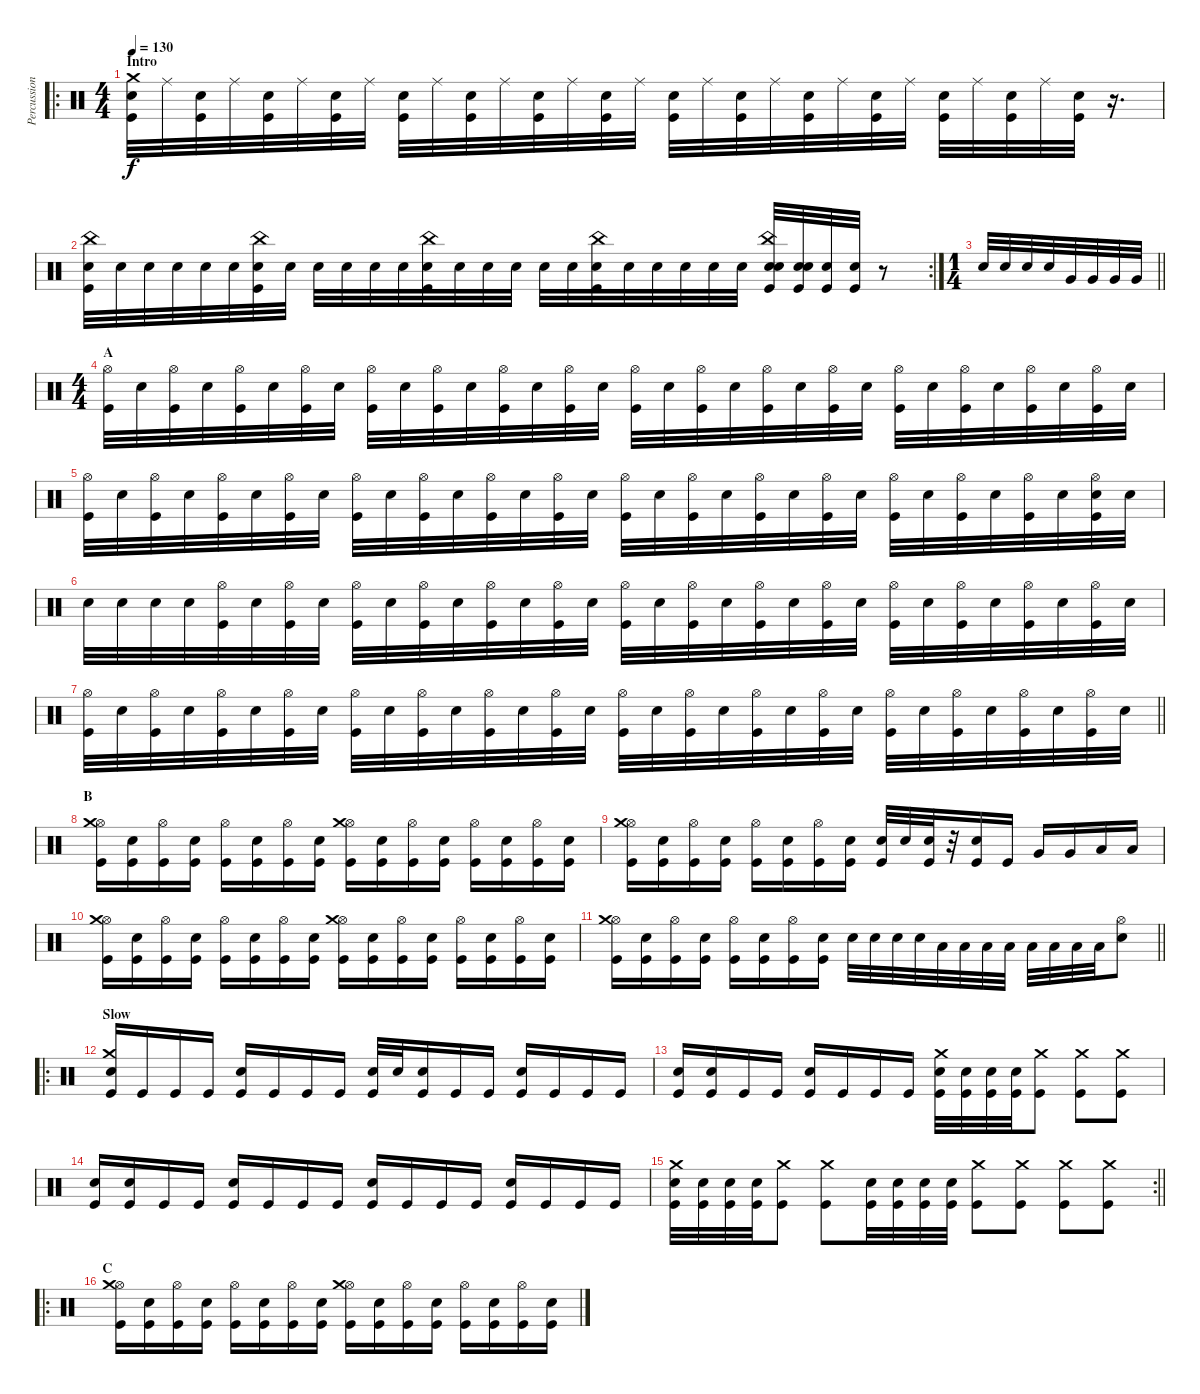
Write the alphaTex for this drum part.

\track ("Percussion" "Percussion") {instrument percussion}
\staff {score}
\articulation defaults
\ro
\ts (4 4)
\section ("" "Intro")
\tempo 130
\clef neutral
\ks c
("Electric Snare (hit)" "Crash medium (hit)" "Kick (hit)").32{dy f} "Ride (middle)".32 ("Electric Snare (hit)" "Kick (hit)").32 "Ride (middle)".32 ("Electric Snare (hit)" "Kick (hit)").32 "Ride (middle)".32 ("Electric Snare (hit)" "Kick (hit)").32 "Ride (middle)".32 ("Electric Snare (hit)" "Kick (hit)").32 "Ride (middle)".32 ("Electric Snare (hit)" "Kick (hit)").32 "Ride (middle)".32 ("Electric Snare (hit)" "Kick (hit)").32 "Ride (middle)".32 ("Electric Snare (hit)" "Kick (hit)").32 "Ride (middle)".32 ("Electric Snare (hit)" "Kick (hit)").32 "Ride (middle)".32 ("Electric Snare (hit)" "Kick (hit)").32 "Ride (middle)".32 ("Electric Snare (hit)" "Kick (hit)").32 "Ride (middle)".32 ("Electric Snare (hit)" "Kick (hit)").32 "Ride (middle)".32 ("Electric Snare (hit)" "Kick (hit)").32 "Ride (middle)".32 ("Electric Snare (hit)" "Kick (hit)").32 "Ride (middle)".32 ("Electric Snare (hit)" "Kick (hit)").32 r.16{d} |
\rc 2
("Kick (hit)" "Electric Snare (hit)" "China (hit)").32 "Electric Snare (hit)".32{volume 10} "Electric Snare (hit)".32 "Electric Snare (hit)".32 "Electric Snare (hit)".32 "Electric Snare (hit)".32 ("Kick (hit)" "Electric Snare (hit)" "China (hit)").32{volume 13} "Electric Snare (hit)".32{volume 10} "Electric Snare (hit)".32 "Electric Snare (hit)".32 "Electric Snare (hit)".32 "Electric Snare (hit)".32 ("Kick (hit)" "Electric Snare (hit)" "China (hit)").32{volume 13} "Electric Snare (hit)".32{volume 10} "Electric Snare (hit)".32 "Electric Snare (hit)".32 "Electric Snare (hit)".32 "Electric Snare (hit)".32 ("Kick (hit)" "Electric Snare (hit)" "China (hit)").32{volume 13} "Electric Snare (hit)".32{volume 10} "Electric Snare (hit)".32 "Electric Snare (hit)".32 "Electric Snare (hit)".32 "Electric Snare (hit)".32 ("Kick (hit)" "Electric Snare (hit)" "Snare (hit) 2" "China (hit)").32{volume 13} ("Kick (hit)" "Electric Snare (hit)" "Snare (hit) 2").32 ("Kick (hit)" "Electric Snare (hit)").32 ("Kick (hit)" "Electric Snare (hit)").32 r.8 |
\ts (1 4)
\barLineRight lightlight "Electric Snare (hit)".32 "Electric Snare (hit)".32 "Electric Snare (hit)".32 "Electric Snare (hit)".32 "Very Low Tom (hit)".32 "Very Low Tom (hit)".32 "Very Low Tom (hit)".32 "Very Low Tom (hit)".32
|
\ts (4 4)
\section ("" "A")
("Kick (hit)" "Hi-Hat (open)").32 "Electric Snare (hit)".32 ("Kick (hit)" "Hi-Hat (open)").32 "Electric Snare (hit)".32 ("Kick (hit)" "Hi-Hat (open)").32 "Electric Snare (hit)".32 ("Kick (hit)" "Hi-Hat (open)").32 "Electric Snare (hit)".32 ("Kick (hit)" "Hi-Hat (open)").32 "Electric Snare (hit)".32 ("Kick (hit)" "Hi-Hat (open)").32 "Electric Snare (hit)".32 ("Kick (hit)" "Hi-Hat (open)").32 "Electric Snare (hit)".32 ("Kick (hit)" "Hi-Hat (open)").32 "Electric Snare (hit)".32 ("Kick (hit)" "Hi-Hat (open)").32 "Electric Snare (hit)".32 ("Kick (hit)" "Hi-Hat (open)").32 "Electric Snare (hit)".32 ("Kick (hit)" "Hi-Hat (open)").32 "Electric Snare (hit)".32 ("Kick (hit)" "Hi-Hat (open)").32 "Electric Snare (hit)".32 ("Kick (hit)" "Hi-Hat (open)").32 "Electric Snare (hit)".32 ("Kick (hit)" "Hi-Hat (open)").32 "Electric Snare (hit)".32 ("Kick (hit)" "Hi-Hat (open)").32 "Electric Snare (hit)".32 ("Kick (hit)" "Hi-Hat (open)").32 "Electric Snare (hit)".32 |
("Kick (hit)" "Hi-Hat (open)").32 "Electric Snare (hit)".32 ("Kick (hit)" "Hi-Hat (open)").32 "Electric Snare (hit)".32 ("Kick (hit)" "Hi-Hat (open)").32 "Electric Snare (hit)".32 ("Kick (hit)" "Hi-Hat (open)").32 "Electric Snare (hit)".32 ("Kick (hit)" "Hi-Hat (open)").32 "Electric Snare (hit)".32 ("Kick (hit)" "Hi-Hat (open)").32 "Electric Snare (hit)".32 ("Kick (hit)" "Hi-Hat (open)").32 "Electric Snare (hit)".32 ("Kick (hit)" "Hi-Hat (open)").32 "Electric Snare (hit)".32 ("Kick (hit)" "Hi-Hat (open)").32 "Electric Snare (hit)".32 ("Kick (hit)" "Hi-Hat (open)").32 "Electric Snare (hit)".32 ("Kick (hit)" "Hi-Hat (open)").32 "Electric Snare (hit)".32 ("Kick (hit)" "Hi-Hat (open)").32 "Electric Snare (hit)".32 ("Kick (hit)" "Hi-Hat (open)").32 "Electric Snare (hit)".32 ("Kick (hit)" "Hi-Hat (open)").32 "Electric Snare (hit)".32 ("Kick (hit)" "Hi-Hat (open)").32 "Electric Snare (hit)".32 ("Kick (hit)" "Electric Snare (hit)" "Hi-Hat (open)").32 "Electric Snare (hit)".32 |
"Electric Snare (hit)".32 "Electric Snare (hit)".32 "Electric Snare (hit)".32 "Electric Snare (hit)".32 ("Kick (hit)" "Hi-Hat (open)").32 "Electric Snare (hit)".32 ("Kick (hit)" "Hi-Hat (open)").32 "Electric Snare (hit)".32 ("Kick (hit)" "Hi-Hat (open)").32 "Electric Snare (hit)".32 ("Kick (hit)" "Hi-Hat (open)").32 "Electric Snare (hit)".32 ("Kick (hit)" "Hi-Hat (open)").32 "Electric Snare (hit)".32 ("Kick (hit)" "Hi-Hat (open)").32 "Electric Snare (hit)".32 ("Kick (hit)" "Hi-Hat (open)").32 "Electric Snare (hit)".32 ("Kick (hit)" "Hi-Hat (open)").32 "Electric Snare (hit)".32 ("Kick (hit)" "Hi-Hat (open)").32 "Electric Snare (hit)".32 ("Kick (hit)" "Hi-Hat (open)").32 "Electric Snare (hit)".32 ("Kick (hit)" "Hi-Hat (open)").32 "Electric Snare (hit)".32 ("Kick (hit)" "Hi-Hat (open)").32 "Electric Snare (hit)".32 ("Kick (hit)" "Hi-Hat (open)").32 "Electric Snare (hit)".32 ("Kick (hit)" "Hi-Hat (open)").32 "Electric Snare (hit)".32 |
\barLineRight lightlight
("Kick (hit)" "Hi-Hat (open)").32 "Electric Snare (hit)".32 ("Kick (hit)" "Hi-Hat (open)").32 "Electric Snare (hit)".32 ("Kick (hit)" "Hi-Hat (open)").32 "Electric Snare (hit)".32 ("Kick (hit)" "Hi-Hat (open)").32 "Electric Snare (hit)".32 ("Kick (hit)" "Hi-Hat (open)").32 "Electric Snare (hit)".32 ("Kick (hit)" "Hi-Hat (open)").32 "Electric Snare (hit)".32 ("Kick (hit)" "Hi-Hat (open)").32 "Electric Snare (hit)".32 ("Kick (hit)" "Hi-Hat (open)").32 "Electric Snare (hit)".32 ("Kick (hit)" "Hi-Hat (open)").32 "Electric Snare (hit)".32 ("Kick (hit)" "Hi-Hat (open)").32 "Electric Snare (hit)".32 ("Kick (hit)" "Hi-Hat (open)").32 "Electric Snare (hit)".32 ("Kick (hit)" "Hi-Hat (open)").32 "Electric Snare (hit)".32 ("Kick (hit)" "Hi-Hat (open)").32 "Electric Snare (hit)".32 ("Kick (hit)" "Hi-Hat (open)").32 "Electric Snare (hit)".32 ("Kick (hit)" "Hi-Hat (open)").32 "Electric Snare (hit)".32 ("Kick (hit)" "Hi-Hat (open)").32 "Electric Snare (hit)".32 |
\section ("" "B")
("Kick (hit)" "Hi-Hat (open)" "Crash medium (hit)").16 ("Kick (hit)" "Electric Snare (hit)").16 ("Kick (hit)" "Hi-Hat (open)").16 ("Kick (hit)" "Electric Snare (hit)").16 ("Kick (hit)" "Hi-Hat (open)").16 ("Kick (hit)" "Electric Snare (hit)").16 ("Kick (hit)" "Hi-Hat (open)").16 ("Kick (hit)" "Electric Snare (hit)").16 ("Kick (hit)" "Hi-Hat (open)" "Crash medium (hit)").16 ("Kick (hit)" "Electric Snare (hit)").16 ("Kick (hit)" "Hi-Hat (open)").16 ("Kick (hit)" "Electric Snare (hit)").16 ("Kick (hit)" "Hi-Hat (open)").16 ("Kick (hit)" "Electric Snare (hit)").16 ("Kick (hit)" "Hi-Hat (open)").16 ("Kick (hit)" "Electric Snare (hit)").16 |
("Kick (hit)" "Hi-Hat (open)" "Crash medium (hit)").16 ("Kick (hit)" "Electric Snare (hit)").16 ("Kick (hit)" "Hi-Hat (open)").16 ("Kick (hit)" "Electric Snare (hit)").16 ("Kick (hit)" "Hi-Hat (open)").16 ("Kick (hit)" "Electric Snare (hit)").16 ("Kick (hit)" "Hi-Hat (open)").16 ("Kick (hit)" "Electric Snare (hit)").16 ("Kick (hit)" "Electric Snare (hit)").32 "Electric Snare (hit)".32 ("Kick (hit)" "Electric Snare (hit)").32 r.32 ("Kick (hit)" "Electric Snare (hit)").16 "Kick (hit)".16 "Very Low Tom (hit)".16 "Very Low Tom (hit)".16 "Low Floor Tom (hit)".16 "Low Floor Tom (hit)".16 |
("Kick (hit)" "Hi-Hat (open)" "Crash medium (hit)").16 ("Kick (hit)" "Electric Snare (hit)").16 ("Kick (hit)" "Hi-Hat (open)").16 ("Kick (hit)" "Electric Snare (hit)").16 ("Kick (hit)" "Hi-Hat (open)").16 ("Kick (hit)" "Electric Snare (hit)").16 ("Kick (hit)" "Hi-Hat (open)").16 ("Kick (hit)" "Electric Snare (hit)").16 ("Kick (hit)" "Hi-Hat (open)" "Crash medium (hit)").16 ("Kick (hit)" "Electric Snare (hit)").16 ("Kick (hit)" "Hi-Hat (open)").16 ("Kick (hit)" "Electric Snare (hit)").16 ("Kick (hit)" "Hi-Hat (open)").16 ("Kick (hit)" "Electric Snare (hit)").16 ("Kick (hit)" "Hi-Hat (open)").16 ("Kick (hit)" "Electric Snare (hit)").16 |
\barLineRight lightlight
("Kick (hit)" "Hi-Hat (open)" "Crash medium (hit)").16 ("Kick (hit)" "Electric Snare (hit)").16 ("Kick (hit)" "Hi-Hat (open)").16 ("Kick (hit)" "Electric Snare (hit)").16 ("Kick (hit)" "Hi-Hat (open)").16 ("Kick (hit)" "Electric Snare (hit)").16 ("Kick (hit)" "Hi-Hat (open)").16 ("Kick (hit)" "Electric Snare (hit)").16 "Electric Snare (hit)".32 "Electric Snare (hit)".32 "Electric Snare (hit)".32 "Electric Snare (hit)".32 "Low Floor Tom (hit)".32 "Low Floor Tom (hit)".32 "Low Floor Tom (hit)".32 "Low Floor Tom (hit)".32 "Low Floor Tom (hit)".32 "Low Floor Tom (hit)".32 "Low Floor Tom (hit)".32 "Low Floor Tom (hit)".32 ("Electric Snare (hit)" "Hi-Hat (open)").8 |
\ro
\section ("" "Slow")
("Kick (hit)" "Electric Snare (hit)" "Crash medium (hit)").16 "Kick (hit)".16 "Kick (hit)".16 "Kick (hit)".16 ("Kick (hit)" "Electric Snare (hit)").16 "Kick (hit)".16 "Kick (hit)".16 "Kick (hit)".16 ("Kick (hit)" "Electric Snare (hit)").32 "Electric Snare (hit)".32 ("Kick (hit)" "Electric Snare (hit)").16 "Kick (hit)".16 "Kick (hit)".16 ("Kick (hit)" "Electric Snare (hit)").16 "Kick (hit)".16 "Kick (hit)".16 "Kick (hit)".16 |
("Kick (hit)" "Electric Snare (hit)").16 ("Kick (hit)" "Electric Snare (hit)").16 "Kick (hit)".16 "Kick (hit)".16 ("Kick (hit)" "Electric Snare (hit)").16 "Kick (hit)".16 "Kick (hit)".16 "Kick (hit)".16 ("Kick (hit)" "Electric Snare (hit)" "Crash medium (hit)").32 ("Kick (hit)" "Electric Snare (hit)").32 ("Kick (hit)" "Electric Snare (hit)").32 ("Kick (hit)" "Electric Snare (hit)").32 ("Kick (hit)" "Crash medium (hit)").8 ("Kick (hit)" "Crash medium (hit)").8 ("Kick (hit)" "Crash medium (hit)").8 |
("Kick (hit)" "Electric Snare (hit)").16 ("Kick (hit)" "Electric Snare (hit)").16 "Kick (hit)".16 "Kick (hit)".16 ("Kick (hit)" "Electric Snare (hit)").16 "Kick (hit)".16 "Kick (hit)".16 "Kick (hit)".16 ("Kick (hit)" "Electric Snare (hit)").16 "Kick (hit)".16 "Kick (hit)".16 "Kick (hit)".16 ("Kick (hit)" "Electric Snare (hit)").16 "Kick (hit)".16 "Kick (hit)".16 "Kick (hit)".16 |
\rc 2
\barLineRight lightlight
("Kick (hit)" "Electric Snare (hit)" "Crash medium (hit)").32 ("Kick (hit)" "Electric Snare (hit)").32 ("Kick (hit)" "Electric Snare (hit)").32 ("Kick (hit)" "Electric Snare (hit)").32 ("Kick (hit)" "Crash medium (hit)").8 ("Kick (hit)" "Crash medium (hit)").8 ("Kick (hit)" "Electric Snare (hit)").32 ("Kick (hit)" "Electric Snare (hit)").32 ("Kick (hit)" "Electric Snare (hit)").32 ("Kick (hit)" "Electric Snare (hit)").32 ("Kick (hit)" "Crash medium (hit)").8 ("Kick (hit)" "Crash medium (hit)").8 ("Kick (hit)" "Crash medium (hit)").8 ("Kick (hit)" "Crash medium (hit)").8 |
\ro
\section ("" "C")
("Kick (hit)" "Hi-Hat (open)" "Crash medium (hit)").16 ("Kick (hit)" "Electric Snare (hit)").16 ("Kick (hit)" "Hi-Hat (open)").16 ("Kick (hit)" "Electric Snare (hit)").16 ("Kick (hit)" "Hi-Hat (open)").16 ("Kick (hit)" "Electric Snare (hit)").16 ("Kick (hit)" "Hi-Hat (open)").16 ("Kick (hit)" "Electric Snare (hit)").16 ("Kick (hit)" "Hi-Hat (open)" "Crash medium (hit)").16 ("Kick (hit)" "Electric Snare (hit)").16 ("Kick (hit)" "Hi-Hat (open)").16 ("Kick (hit)" "Electric Snare (hit)").16 ("Kick (hit)" "Hi-Hat (open)").16 ("Kick (hit)" "Electric Snare (hit)").16 ("Kick (hit)" "Hi-Hat (open)").16 ("Kick (hit)" "Electric Snare (hit)").16
